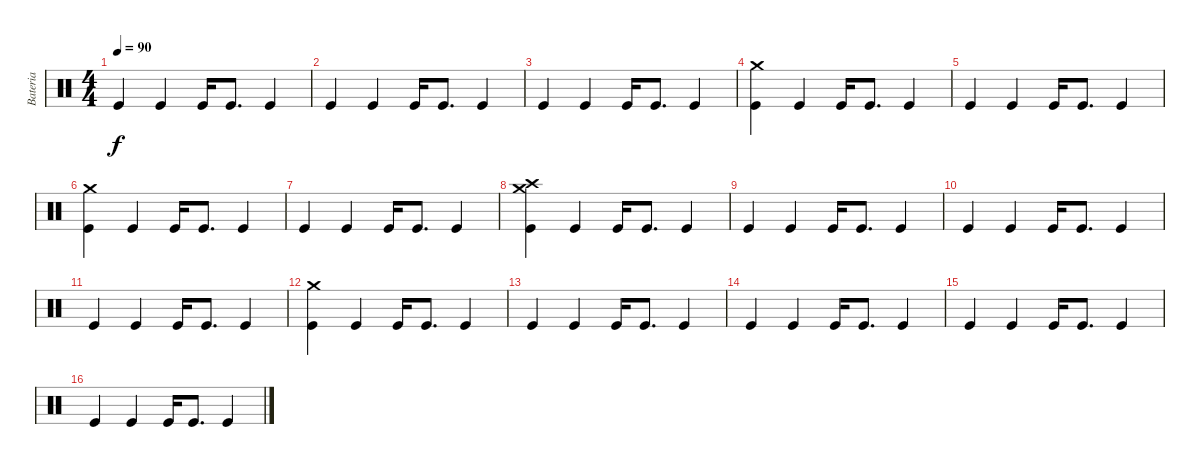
\track ("Bateria" "Bateria") {instrument percussion}
\staff {score}
\articulation defaults
\ts (4 4)
\tempo 90
\clef neutral
\ks c "Kick (hit)".4{dy f} "Kick (hit)".4 "Kick (hit)".16 "Kick (hit)".8{d} "Kick (hit)".4
|
"Kick (hit)".4 "Kick (hit)".4 "Kick (hit)".16 "Kick (hit)".8{d} "Kick (hit)".4 |
"Kick (hit)".4 "Kick (hit)".4 "Kick (hit)".16 "Kick (hit)".8{d} "Kick (hit)".4 |
("Kick (hit)" "Crash medium (hit)").4 "Kick (hit)".4 "Kick (hit)".16 "Kick (hit)".8{d} "Kick (hit)".4 |
"Kick (hit)".4 "Kick (hit)".4 "Kick (hit)".16 "Kick (hit)".8{d} "Kick (hit)".4 |
("Kick (hit)" "Crash medium (hit)").4 "Kick (hit)".4 "Kick (hit)".16 "Kick (hit)".8{d} "Kick (hit)".4 |
"Kick (hit)".4 "Kick (hit)".4 "Kick (hit)".16 "Kick (hit)".8{d} "Kick (hit)".4 |
("Kick (hit)" "Crash high (hit)" "Crash medium (hit)").4 "Kick (hit)".4 "Kick (hit)".16 "Kick (hit)".8{d} "Kick (hit)".4 |
"Kick (hit)".4 "Kick (hit)".4 "Kick (hit)".16 "Kick (hit)".8{d} "Kick (hit)".4 |
"Kick (hit)".4 "Kick (hit)".4 "Kick (hit)".16 "Kick (hit)".8{d} "Kick (hit)".4 |
"Kick (hit)".4 "Kick (hit)".4 "Kick (hit)".16 "Kick (hit)".8{d} "Kick (hit)".4 |
("Kick (hit)" "Crash medium (hit)").4 "Kick (hit)".4 "Kick (hit)".16 "Kick (hit)".8{d} "Kick (hit)".4 |
"Kick (hit)".4 "Kick (hit)".4 "Kick (hit)".16 "Kick (hit)".8{d} "Kick (hit)".4 |
"Kick (hit)".4 "Kick (hit)".4 "Kick (hit)".16 "Kick (hit)".8{d} "Kick (hit)".4 |
"Kick (hit)".4 "Kick (hit)".4 "Kick (hit)".16 "Kick (hit)".8{d} "Kick (hit)".4 |
"Kick (hit)".4 "Kick (hit)".4 "Kick (hit)".16 "Kick (hit)".8{d} "Kick (hit)".4
